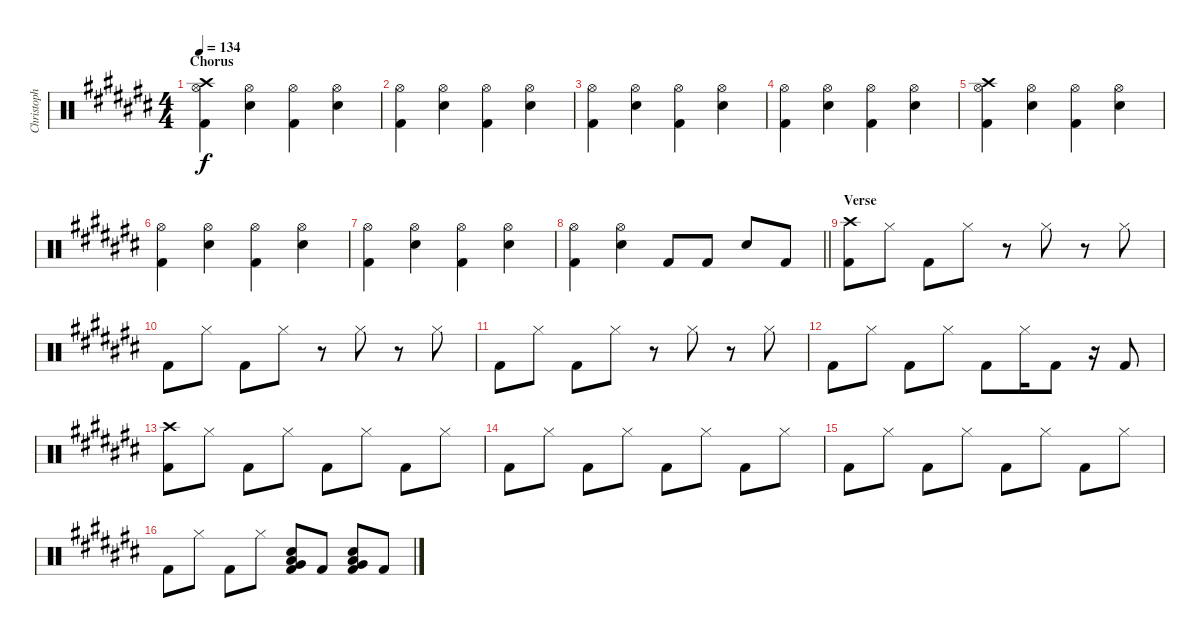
\track ("Christoph Doom Schneider - Drums" "Christoph ") {instrument percussion}
\staff {score}
\articulation defaults
\ts (4 4)
\section ("" "Chorus")
\tempo 134
\clef neutral
\ks c#
("Crash high (hit)" "Hi-Hat (open)" "Kick (hit) 2").4{dy f} ("Hi-Hat (open)" "Electric Snare (hit)").4 ("Hi-Hat (open)" "Kick (hit) 2").4 ("Hi-Hat (open)" "Electric Snare (hit)").4 |
("Hi-Hat (open)" "Kick (hit) 2").4 ("Hi-Hat (open)" "Electric Snare (hit)").4 ("Hi-Hat (open)" "Kick (hit) 2").4 ("Hi-Hat (open)" "Electric Snare (hit)").4 |
("Hi-Hat (open)" "Kick (hit) 2").4 ("Hi-Hat (open)" "Electric Snare (hit)").4 ("Hi-Hat (open)" "Kick (hit) 2").4 ("Hi-Hat (open)" "Electric Snare (hit)").4 |
("Hi-Hat (open)" "Kick (hit) 2").4 ("Hi-Hat (open)" "Electric Snare (hit)").4 ("Hi-Hat (open)" "Kick (hit) 2").4 ("Hi-Hat (open)" "Electric Snare (hit)").4 |
("Crash high (hit)" "Hi-Hat (open)" "Kick (hit) 2").4 ("Hi-Hat (open)" "Electric Snare (hit)").4 ("Hi-Hat (open)" "Kick (hit) 2").4 ("Hi-Hat (open)" "Electric Snare (hit)").4 |
("Hi-Hat (open)" "Kick (hit) 2").4 ("Hi-Hat (open)" "Electric Snare (hit)").4 ("Hi-Hat (open)" "Kick (hit) 2").4 ("Hi-Hat (open)" "Electric Snare (hit)").4 |
("Hi-Hat (open)" "Kick (hit) 2").4 ("Hi-Hat (open)" "Electric Snare (hit)").4 ("Hi-Hat (open)" "Kick (hit) 2").4 ("Hi-Hat (open)" "Electric Snare (hit)").4 |
\barLineRight lightlight
("Hi-Hat (open)" "Kick (hit) 2").4 ("Hi-Hat (open)" "Electric Snare (hit)").4 "Kick (hit) 2".8 "Kick (hit) 2".8 "Electric Snare (hit)".8 "Kick (hit) 2".8 |
\section ("" "Verse")
("Crash high (hit)" "Kick (hit) 2").8 "Hi-Hat (closed)".8 "Kick (hit) 2".8 "Hi-Hat (closed)".8 r.8 "Hi-Hat (closed)".8 r.8 "Hi-Hat (closed)".8 |
"Kick (hit) 2".8 "Hi-Hat (closed)".8 "Kick (hit) 2".8 "Hi-Hat (closed)".8 r.8 "Hi-Hat (closed)".8 r.8 "Hi-Hat (closed)".8 |
"Kick (hit) 2".8 "Hi-Hat (closed)".8 "Kick (hit) 2".8 "Hi-Hat (closed)".8 r.8 "Hi-Hat (closed)".8 r.8 "Hi-Hat (closed)".8 |
"Kick (hit) 2".8 "Hi-Hat (closed)".8 "Kick (hit) 2".8 "Hi-Hat (closed)".8 "Kick (hit) 2".8 "Hi-Hat (closed)".16 "Kick (hit) 2"{tr (36 16)}.8 r.16 "Kick (hit) 2".8 |
("Crash high (hit)" "Kick (hit) 2").8 "Hi-Hat (closed)".8 "Kick (hit) 2".8 "Hi-Hat (closed)".8 "Kick (hit) 2".8 "Hi-Hat (closed)".8 "Kick (hit) 2".8 "Hi-Hat (closed)".8 |
"Kick (hit) 2".8 "Hi-Hat (closed)".8 "Kick (hit) 2".8 "Hi-Hat (closed)".8 "Kick (hit) 2".8 "Hi-Hat (closed)".8 "Kick (hit) 2".8 "Hi-Hat (closed)".8 |
"Kick (hit) 2".8 "Hi-Hat (closed)".8 "Kick (hit) 2".8 "Hi-Hat (closed)".8 "Kick (hit) 2".8 "Hi-Hat (closed)".8 "Kick (hit) 2".8 "Hi-Hat (closed)".8 |
"Kick (hit) 2".8 "Hi-Hat (closed)".8 "Kick (hit) 2".8 "Hi-Hat (closed)".8 ("Low Floor Tom (hit)" "Electric Snare (hit)" "Very Low Tom (hit)" "Kick (hit) 2").8 "Kick (hit) 2".8 ("Low Floor Tom (hit)" "Electric Snare (hit)" "Very Low Tom (hit)" "Kick (hit) 2").8 "Kick (hit) 2".8
